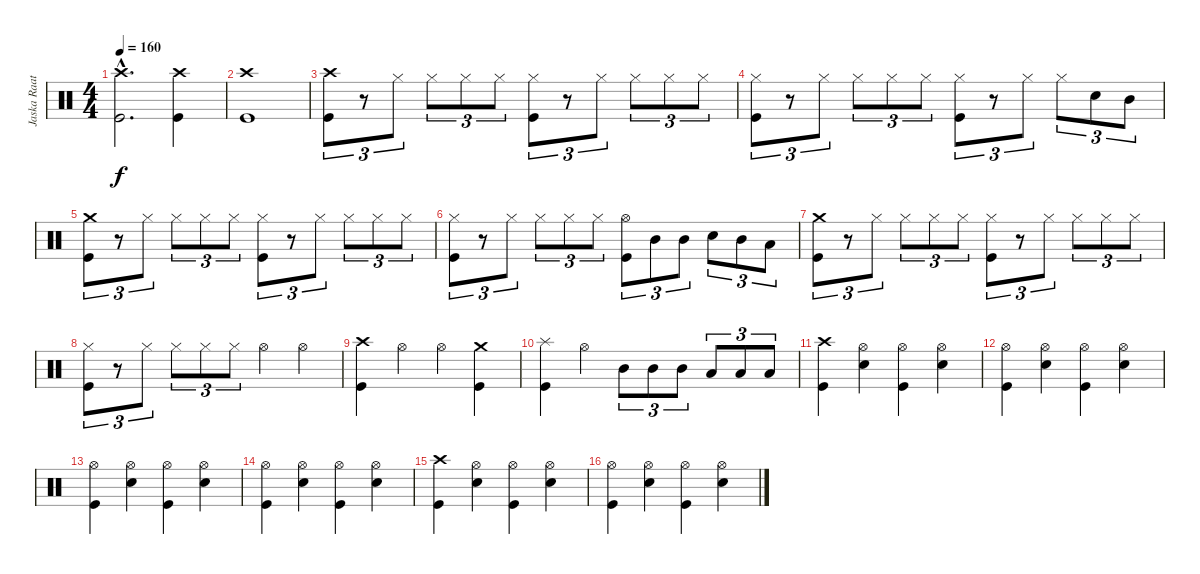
\track ("Jaska Raatikainen" "Jaska Raat") {instrument percussion}
\staff {score}
\articulation defaults
\ts (4 4)
\tempo 160
\clef neutral
\ks c
("Crash high (hit)"{hac} "Kick (hit)"{hac}).2{d dy f} ("Crash high (hit)" "Kick (hit)").4 |
("Crash high (hit)" "Kick (hit)").1 |
("Crash high (hit)" "Kick (hit)").8{tu (3 2)} r.8{tu (3 2)} "Hi-Hat (closed)".8{tu (3 2)} "Hi-Hat (closed)".8{tu (3 2)} "Hi-Hat (closed)".8{tu (3 2)} "Hi-Hat (closed)".8{tu (3 2)} ("Hi-Hat (closed)" "Kick (hit)").8{tu (3 2)} r.8{tu (3 2)} "Hi-Hat (closed)".8{tu (3 2)} "Hi-Hat (closed)".8{tu (3 2)} "Hi-Hat (closed)".8{tu (3 2)} "Hi-Hat (closed)".8{tu (3 2)} |
("Hi-Hat (closed)" "Kick (hit)").8{tu (3 2)} r.8{tu (3 2)} "Hi-Hat (closed)".8{tu (3 2)} "Hi-Hat (closed)".8{tu (3 2)} "Hi-Hat (closed)".8{tu (3 2)} "Hi-Hat (closed)".8{tu (3 2)} ("Hi-Hat (closed)" "Kick (hit)").8{tu (3 2)} r.8{tu (3 2)} "Hi-Hat (closed)".8{tu (3 2)} "Hi-Hat (closed)".8{tu (3 2)} "Electric Snare (hit)".8{tu (3 2)} "Mid Tom (hit)".8{tu (3 2)} |
("Crash medium (hit)" "Kick (hit)").8{tu (3 2)} r.8{tu (3 2)} "Hi-Hat (closed)".8{tu (3 2)} "Hi-Hat (closed)".8{tu (3 2)} "Hi-Hat (closed)".8{tu (3 2)} "Hi-Hat (closed)".8{tu (3 2)} ("Hi-Hat (closed)" "Kick (hit)").8{tu (3 2)} r.8{tu (3 2)} "Hi-Hat (closed)".8{tu (3 2)} "Hi-Hat (closed)".8{tu (3 2)} "Hi-Hat (closed)".8{tu (3 2)} "Hi-Hat (closed)".8{tu (3 2)} |
("Hi-Hat (closed)" "Kick (hit)").8{tu (3 2)} r.8{tu (3 2)} "Hi-Hat (closed)".8{tu (3 2)} "Hi-Hat (closed)".8{tu (3 2)} "Hi-Hat (closed)".8{tu (3 2)} "Hi-Hat (closed)".8{tu (3 2)} ("Hi-Hat (open)" "Kick (hit)").8{tu (3 2)} "Mid Tom (hit)".8{tu (3 2)} "Mid Tom (hit)".8{tu (3 2)} "Electric Snare (hit)".8{tu (3 2)} "Mid Tom (hit)".8{tu (3 2)} "Low Tom (hit)".8{tu (3 2)} |
("Crash medium (hit)" "Kick (hit)").8{tu (3 2)} r.8{tu (3 2)} "Hi-Hat (closed)".8{tu (3 2)} "Hi-Hat (closed)".8{tu (3 2)} "Hi-Hat (closed)".8{tu (3 2)} "Hi-Hat (closed)".8{tu (3 2)} ("Hi-Hat (closed)" "Kick (hit)").8{tu (3 2)} r.8{tu (3 2)} "Hi-Hat (closed)".8{tu (3 2)} "Hi-Hat (closed)".8{tu (3 2)} "Hi-Hat (closed)".8{tu (3 2)} "Hi-Hat (closed)".8{tu (3 2)} |
("Hi-Hat (closed)" "Kick (hit)").8{tu (3 2)} r.8{tu (3 2)} "Hi-Hat (closed)".8{tu (3 2)} "Hi-Hat (closed)".8{tu (3 2)} "Hi-Hat (closed)".8{tu (3 2)} "Hi-Hat (closed)".8{tu (3 2)} "Hi-Hat (open)".4 "Hi-Hat (open)".4 |
("Crash high (hit)" "Kick (hit)").4 "Hi-Hat (open)".4 "Hi-Hat (open)".4 ("Crash medium (hit)" "Kick (hit)").4 |
("Splash (hit)" "Kick (hit)").4 "Hi-Hat (open)".4 "Mid Tom (hit)".8{tu (3 2)} "Mid Tom (hit)".8{tu (3 2)} "Mid Tom (hit)".8{tu (3 2)} "Low Tom (hit)".8{tu (3 2)} "Low Tom (hit)".8{tu (3 2)} "Low Tom (hit)".8{tu (3 2)} |
("Crash high (hit)" "Kick (hit)").4 ("Hi-Hat (open)" "Electric Snare (hit)").4 ("Hi-Hat (open)" "Kick (hit)").4 ("Hi-Hat (open)" "Electric Snare (hit)").4 |
("Hi-Hat (open)" "Kick (hit)").4 ("Hi-Hat (open)" "Electric Snare (hit)").4 ("Hi-Hat (open)" "Kick (hit)").4 ("Hi-Hat (open)" "Electric Snare (hit)").4 |
("Hi-Hat (open)" "Kick (hit)").4 ("Hi-Hat (open)" "Electric Snare (hit)").4 ("Hi-Hat (open)" "Kick (hit)").4 ("Hi-Hat (open)" "Electric Snare (hit)").4 |
("Hi-Hat (open)" "Kick (hit)").4 ("Hi-Hat (open)" "Electric Snare (hit)").4 ("Hi-Hat (open)" "Kick (hit)").4 ("Hi-Hat (open)" "Electric Snare (hit)").4 |
("Crash high (hit)" "Kick (hit)").4 ("Hi-Hat (open)" "Electric Snare (hit)").4 ("Hi-Hat (open)" "Kick (hit)").4 ("Hi-Hat (open)" "Electric Snare (hit)").4 |
("Hi-Hat (open)" "Kick (hit)").4 ("Hi-Hat (open)" "Electric Snare (hit)").4 ("Hi-Hat (open)" "Kick (hit)").4 ("Hi-Hat (open)" "Electric Snare (hit)").4
